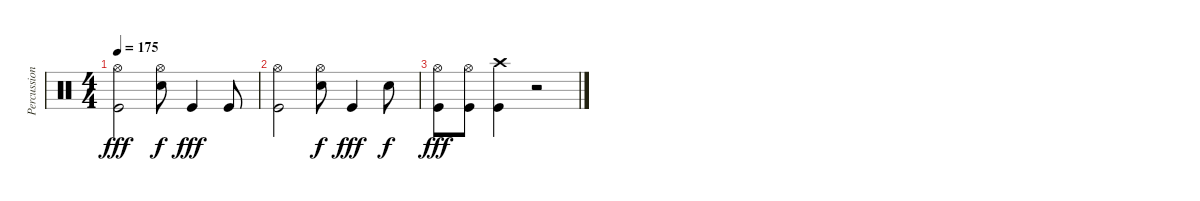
\track ("Percussions" "Percussion") {instrument percussion}
\staff {score}
\articulation defaults
\ts (4 4)
\tempo 175
\clef neutral
\ks c
("Hi-Hat (open)" "Kick (hit)").2{dy fff} ("Hi-Hat (open)" "Electric Snare (hit)").8{dy f} "Kick (hit)".4{dy fff} "Kick (hit)".8 |
("Hi-Hat (open)" "Kick (hit)").2 ("Hi-Hat (open)" "Electric Snare (hit)").8{dy f} "Kick (hit)".4{dy fff} "Electric Snare (hit)".8{dy f} |
("Hi-Hat (open)" "Kick (hit)").8{dy fff} ("Hi-Hat (open)" "Kick (hit)").8 ("Crash high (hit)" "Kick (hit)").4 r.2
